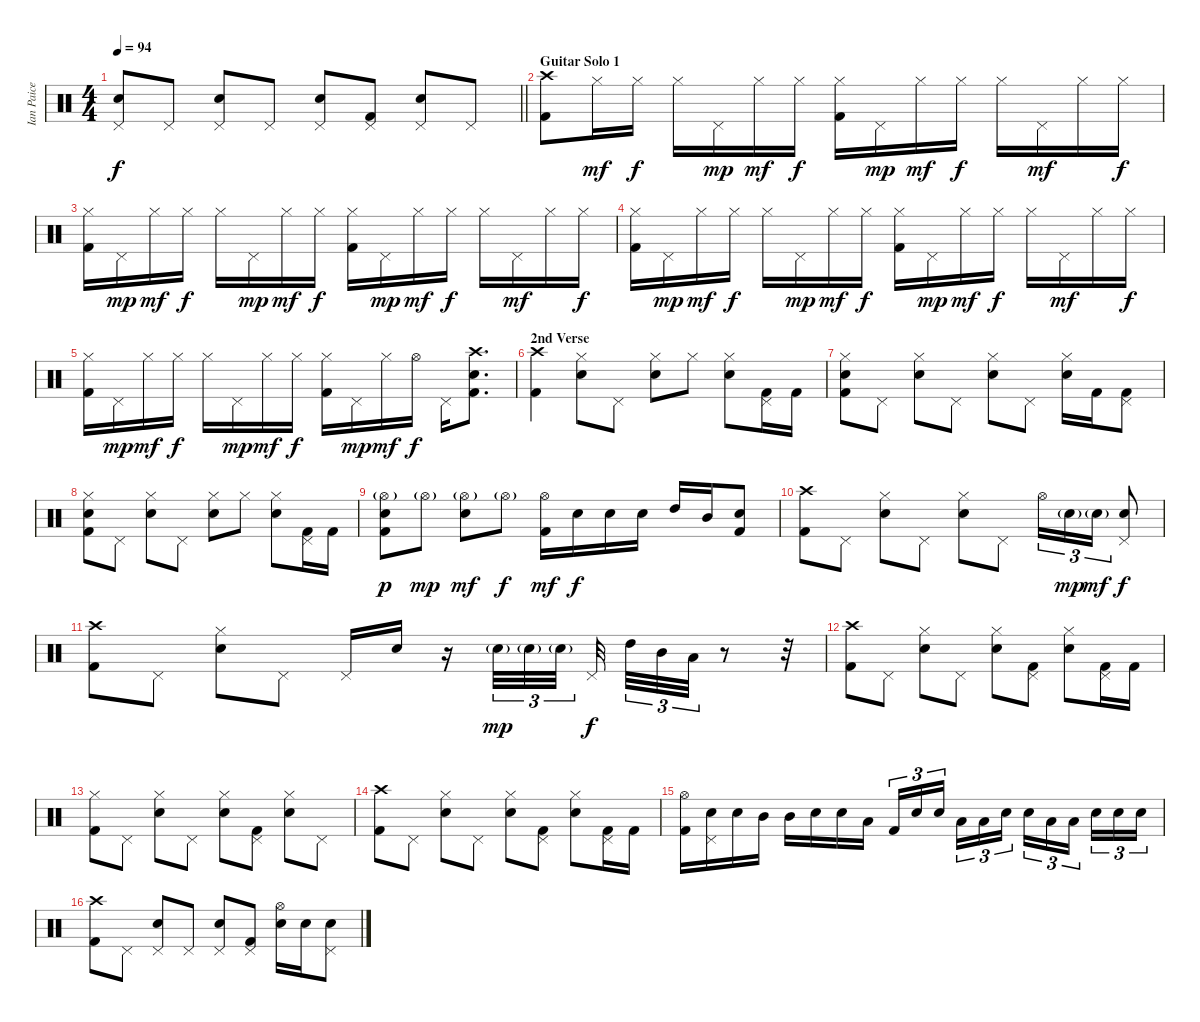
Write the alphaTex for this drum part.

\track ("Ian Paice (Drums)" "Ian Paice ") {instrument percussion}
\staff {score}
\articulation defaults
\ts (4 4)
\tempo 94
\clef neutral
\barLineRight lightlight
\ks c
("Pedal Hi-Hat (hit)" "Electric Snare (hit)").8{dy f} "Pedal Hi-Hat (hit)".8 ("Pedal Hi-Hat (hit)" "Electric Snare (hit)").8 "Pedal Hi-Hat (hit)".8 ("Pedal Hi-Hat (hit)" "Electric Snare (hit)").8 ("Pedal Hi-Hat (hit)" "Kick (hit) 2").8 ("Pedal Hi-Hat (hit)" "Electric Snare (hit)").8 "Pedal Hi-Hat (hit)".8 |
\section ("" "Guitar Solo 1")
("Crash high (hit)" "Kick (hit) 2").8 "Hi-Hat (closed)".16{dy mf} "Hi-Hat (closed)".16{dy f} "Hi-Hat (closed)".16 "Pedal Hi-Hat (hit)".16{dy mp} "Hi-Hat (closed)".16{dy mf} "Hi-Hat (closed)".16{dy f} ("Hi-Hat (closed)" "Kick (hit) 2").16 "Pedal Hi-Hat (hit)".16{dy mp} "Hi-Hat (closed)".16{dy mf} "Hi-Hat (closed)".16{dy f} "Hi-Hat (closed)".16 "Pedal Hi-Hat (hit)".16{dy mf} "Hi-Hat (closed)".16 "Hi-Hat (closed)".16{dy f} |
("Hi-Hat (closed)" "Kick (hit) 2").16 "Pedal Hi-Hat (hit)".16{dy mp} "Hi-Hat (closed)".16{dy mf} "Hi-Hat (closed)".16{dy f} "Hi-Hat (closed)".16 "Pedal Hi-Hat (hit)".16{dy mp} "Hi-Hat (closed)".16{dy mf} "Hi-Hat (closed)".16{dy f} ("Hi-Hat (closed)" "Kick (hit) 2").16 "Pedal Hi-Hat (hit)".16{dy mp} "Hi-Hat (closed)".16{dy mf} "Hi-Hat (closed)".16{dy f} "Hi-Hat (closed)".16 "Pedal Hi-Hat (hit)".16{dy mf} "Hi-Hat (closed)".16 "Hi-Hat (closed)".16{dy f} |
("Hi-Hat (closed)" "Kick (hit) 2").16 "Pedal Hi-Hat (hit)".16{dy mp} "Hi-Hat (closed)".16{dy mf} "Hi-Hat (closed)".16{dy f} "Hi-Hat (closed)".16 "Pedal Hi-Hat (hit)".16{dy mp} "Hi-Hat (closed)".16{dy mf} "Hi-Hat (closed)".16{dy f} ("Hi-Hat (closed)" "Kick (hit) 2").16 "Pedal Hi-Hat (hit)".16{dy mp} "Hi-Hat (closed)".16{dy mf} "Hi-Hat (closed)".16{dy f} "Hi-Hat (closed)".16 "Pedal Hi-Hat (hit)".16{dy mf} "Hi-Hat (closed)".16 "Hi-Hat (closed)".16{dy f} |
("Hi-Hat (closed)" "Kick (hit) 2").16 "Pedal Hi-Hat (hit)".16{dy mp} "Hi-Hat (closed)".16{dy mf} "Hi-Hat (closed)".16{dy f} "Hi-Hat (closed)".16 "Pedal Hi-Hat (hit)".16{dy mp} "Hi-Hat (closed)".16{dy mf} "Hi-Hat (closed)".16{dy f} ("Hi-Hat (closed)" "Kick (hit) 2").16 "Pedal Hi-Hat (hit)".16{dy mp} "Hi-Hat (closed)".16{dy mf} "Hi-Hat (open)".16{dy f} "Pedal Hi-Hat (hit)".16 ("Crash high (hit)" "Electric Snare (hit)" "Kick (hit) 2").8{d} |
\section ("" "2nd Verse")
("Crash high (hit)" "Kick (hit) 2").4 ("Hi-Hat (closed)" "Electric Snare (hit)").8 "Pedal Hi-Hat (hit)".8 ("Hi-Hat (closed)" "Electric Snare (hit)").8 "Hi-Hat (closed)".8 ("Hi-Hat (closed)" "Electric Snare (hit)").8 ("Pedal Hi-Hat (hit)" "Kick (hit) 2").16 "Kick (hit) 2".16 |
("Hi-Hat (closed)" "Electric Snare (hit)" "Kick (hit) 2").8 "Pedal Hi-Hat (hit)".8 ("Hi-Hat (closed)" "Electric Snare (hit)").8 "Pedal Hi-Hat (hit)".8 ("Hi-Hat (closed)" "Electric Snare (hit)").8 "Pedal Hi-Hat (hit)".8 ("Hi-Hat (closed)" "Electric Snare (hit)").16 "Kick (hit) 2".16 ("Pedal Hi-Hat (hit)" "Kick (hit) 2").8 |
("Hi-Hat (closed)" "Electric Snare (hit)" "Kick (hit) 2").8 "Pedal Hi-Hat (hit)".8 ("Hi-Hat (closed)" "Electric Snare (hit)").8 "Pedal Hi-Hat (hit)".8 ("Hi-Hat (closed)" "Electric Snare (hit)").8 "Hi-Hat (closed)".8 ("Hi-Hat (closed)" "Electric Snare (hit)").8 ("Pedal Hi-Hat (hit)" "Kick (hit) 2").16 "Kick (hit) 2".16 |
("Hi-Hat (open)"{g} "Electric Snare (hit)" "Kick (hit) 2").8{dy p} "Hi-Hat (open)"{g}.8{dy mp} ("Hi-Hat (open)"{g} "Electric Snare (hit)").8{dy mf} "Hi-Hat (open)"{g}.8{dy f} ("Hi-Hat (open)" "Kick (hit) 2").16{dy mf} "Electric Snare (hit)".16{dy f} "Electric Snare (hit)".16 "Electric Snare (hit)".16 "High Tom (hit)".16 "Mid Tom (hit)".16 ("Electric Snare (hit)" "Kick (hit) 2").8 |
("Crash high (hit)" "Kick (hit) 2").8 "Pedal Hi-Hat (hit)".8 ("Hi-Hat (closed)" "Electric Snare (hit)").8 "Pedal Hi-Hat (hit)".8 ("Hi-Hat (closed)" "Electric Snare (hit)").8 "Pedal Hi-Hat (hit)".8 "Hi-Hat (open)".16{tu (3 2)} "Electric Snare (hit)"{g}.16{tu (3 2) dy mp} "Electric Snare (hit)"{g}.16{tu (3 2) dy mf} ("Pedal Hi-Hat (hit)" "Electric Snare (hit)").8{dy f} |
("Crash high (hit)" "Kick (hit) 2").8 "Pedal Hi-Hat (hit)".8 ("Hi-Hat (closed)" "Electric Snare (hit)").8 "Pedal Hi-Hat (hit)".8 "Pedal Hi-Hat (hit)".16 "Electric Snare (hit)".16 r.16 "Electric Snare (hit)"{g}.32{tu (3 2) dy mp} "Electric Snare (hit)"{g}.32{tu (3 2)} "Electric Snare (hit)"{g}.32{tu (3 2)} "Pedal Hi-Hat (hit)".32{dy f} "High Tom (hit)".32{tu (3 2)} "Mid Tom (hit)".32{tu (3 2)} "Low Tom (hit)".32{tu (3 2)} r.8 r.32 |
("Crash high (hit)" "Kick (hit) 2").8 "Pedal Hi-Hat (hit)".8 ("Hi-Hat (closed)" "Electric Snare (hit)").8 "Pedal Hi-Hat (hit)".8 ("Hi-Hat (closed)" "Electric Snare (hit)").8 ("Pedal Hi-Hat (hit)" "Kick (hit) 2").8 ("Hi-Hat (closed)" "Electric Snare (hit)").8 ("Pedal Hi-Hat (hit)" "Kick (hit) 2").16 "Kick (hit) 2".16 |
("Hi-Hat (closed)" "Kick (hit) 2").8 "Pedal Hi-Hat (hit)".8 ("Hi-Hat (closed)" "Electric Snare (hit)").8 "Pedal Hi-Hat (hit)".8 ("Hi-Hat (closed)" "Electric Snare (hit)").8 ("Pedal Hi-Hat (hit)" "Kick (hit) 2").8 ("Hi-Hat (closed)" "Electric Snare (hit)").8 "Pedal Hi-Hat (hit)".8 |
("Crash high (hit)" "Kick (hit) 2").8 "Pedal Hi-Hat (hit)".8 ("Hi-Hat (closed)" "Electric Snare (hit)").8 "Pedal Hi-Hat (hit)".8 ("Hi-Hat (closed)" "Electric Snare (hit)").8 ("Pedal Hi-Hat (hit)" "Kick (hit) 2").8 ("Hi-Hat (closed)" "Electric Snare (hit)").8 ("Pedal Hi-Hat (hit)" "Kick (hit) 2").16 "Kick (hit) 2".16 |
("Hi-Hat (open)" "Kick (hit) 2").16 ("Pedal Hi-Hat (hit)" "Electric Snare (hit)").16 "Electric Snare (hit)".16 "Mid Tom (hit)".16 "Mid Tom (hit)".16 "Electric Snare (hit)".16 "Electric Snare (hit)".16 "Low Tom (hit)".16 "Kick (hit) 2".16{tu (3 2)} "Electric Snare (hit)".16{tu (3 2)} "Electric Snare (hit)".16{tu (3 2)} "Low Tom (hit)".16{tu (3 2)} "Low Tom (hit)".16{tu (3 2)} "Electric Snare (hit)".16{tu (3 2)} "Electric Snare (hit)".16{tu (3 2)} "Low Tom (hit)".16{tu (3 2)} "Low Tom (hit)".16{tu (3 2)} "Electric Snare (hit)".16{tu (3 2)} "Electric Snare (hit)".16{tu (3 2)} "Electric Snare (hit)".16{tu (3 2)} |
("Crash high (hit)" "Kick (hit) 2").8 "Pedal Hi-Hat (hit)".8 ("Pedal Hi-Hat (hit)" "Electric Snare (hit)").8 "Pedal Hi-Hat (hit)".8 ("Pedal Hi-Hat (hit)" "Electric Snare (hit)").8 ("Pedal Hi-Hat (hit)" "Kick (hit) 2").8 ("Hi-Hat (open)" "Electric Snare (hit)").16 "Electric Snare (hit)".16 ("Pedal Hi-Hat (hit)" "Electric Snare (hit)").8
